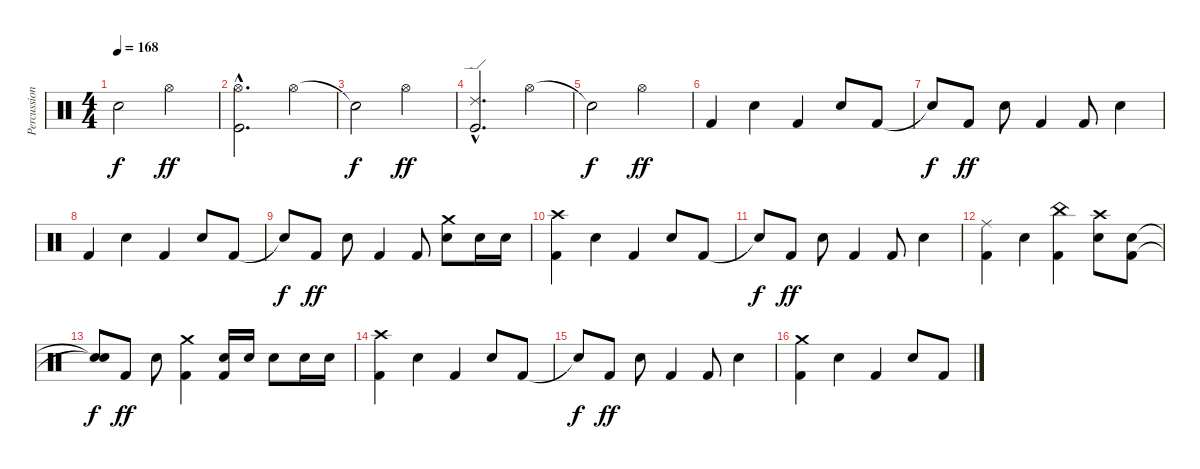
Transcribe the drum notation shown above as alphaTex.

\track ("Percussions" "Percussion") {instrument percussion}
\staff {score}
\articulation defaults
\ts (4 4)
\tempo 168
\clef neutral
\ks c "Snare (hit)"{t}.2{dy f} "Hi-Hat (open)".2{dy ff}
|
("Kick (hit)"{hac} "Hi-Hat (open)"{hac}).2{d} "Hi-Hat (open)".4 |
"Snare (hit)"{t}.2{dy f} "Hi-Hat (open)".2{dy ff} |
("Kick (hit)"{hac} "Ride (edge) 2"{hac}).2{d} "Hi-Hat (open)".4 |
"Snare (hit)"{t}.2{dy f} "Hi-Hat (open)".2{dy ff} |
"Kick (hit) 2".4 "Snare (hit) 2".4 "Kick (hit) 2".4 "Snare (hit) 2".8 "Kick (hit) 2".8 |
"Snare (hit)"{t}.8{dy f} "Kick (hit) 2".8{dy ff} "Snare (hit) 2".8 "Kick (hit) 2".4 "Kick (hit) 2".8 "Snare (hit) 2".4 |
"Kick (hit) 2".4 "Snare (hit) 2".4 "Kick (hit) 2".4 "Snare (hit) 2".8 "Kick (hit) 2".8 |
"Snare (hit)"{t}.8{dy f} "Kick (hit) 2".8{dy ff} "Snare (hit) 2".8 "Kick (hit) 2".4 "Kick (hit) 2".8 ("Snare (hit) 2" "Crash medium (hit)").8 "Snare (hit) 2".16 "Snare (hit) 2".16 |
("Kick (hit) 2" "Crash high (hit)").4 "Snare (hit) 2".4 "Kick (hit) 2".4 "Snare (hit) 2".8 "Kick (hit) 2".8 |
"Snare (hit)"{t}.8{dy f} "Kick (hit) 2".8{dy ff} "Snare (hit) 2".8 "Kick (hit) 2".4 "Kick (hit) 2".8 "Snare (hit) 2".4 |
("Kick (hit) 2" "Ride (middle)").4 "Snare (hit) 2".4 ("Kick (hit) 2" "China (hit)").4 ("Snare (hit) 2" "Crash high (hit)").8 ("Kick (hit) 2" "Snare (hit) 2").8 |
("Snare (hit)"{t} "Snare (hit)"{t}).8{dy f} "Kick (hit) 2".8{dy ff} "Snare (hit) 2".8 ("Kick (hit) 2" "Crash medium (hit)").4 ("Kick (hit) 2" "Snare (hit) 2").16 "Snare (hit) 2".16 "Snare (hit) 2".8 "Snare (hit) 2".16 "Snare (hit) 2".16 |
("Kick (hit) 2" "Crash high (hit)").4 "Snare (hit) 2".4 "Kick (hit) 2".4 "Snare (hit) 2".8 "Kick (hit) 2".8 |
"Snare (hit)"{t}.8{dy f} "Kick (hit) 2".8{dy ff} "Snare (hit) 2".8 "Kick (hit) 2".4 "Kick (hit) 2".8 "Snare (hit) 2".4 |
("Kick (hit) 2" "Crash medium (hit)").4 "Snare (hit) 2".4 "Kick (hit) 2".4 "Snare (hit) 2".8 "Kick (hit) 2".8
